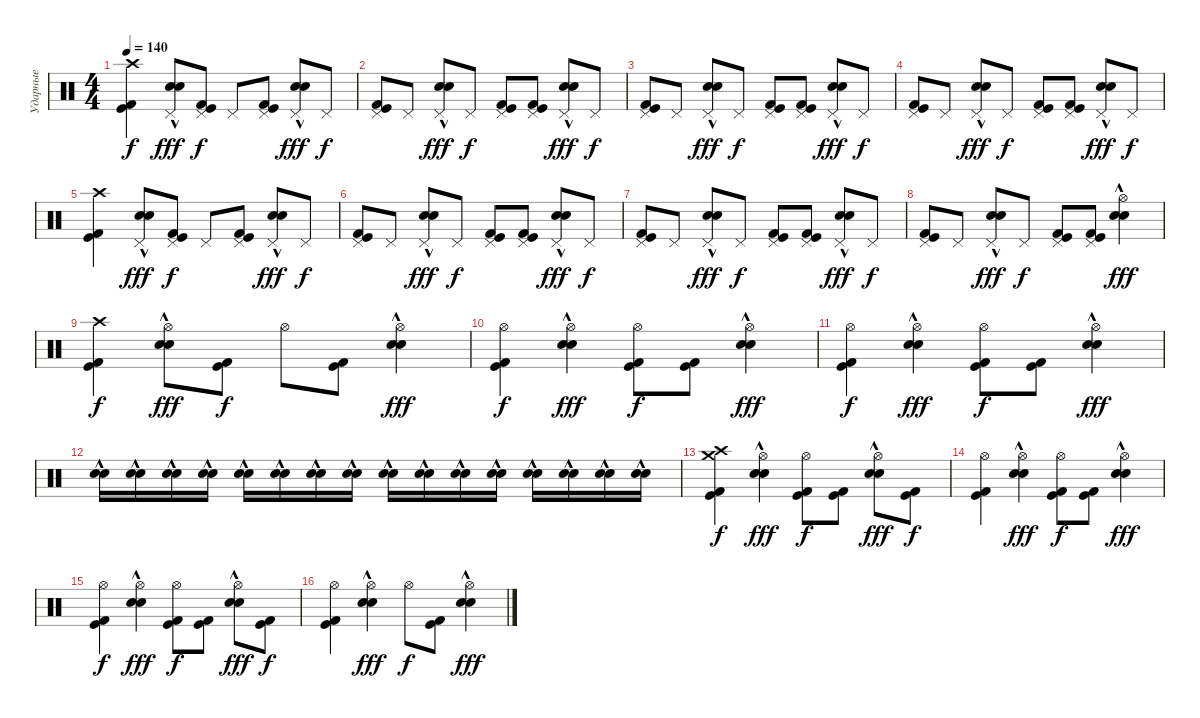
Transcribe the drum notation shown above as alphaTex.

\track ("Ударные" "Ударные") {instrument percussion}
\staff {score}
\articulation defaults
\ts (4 4)
\tempo 140
\clef neutral
\ks c
("Crash high (hit)" "Kick (hit)" "Kick (hit) 2").4{dy f} ("Pedal Hi-Hat (hit)" "Snare (hit) 2"{hac} "Electric Snare (hit)"{hac}).8{dy fff} ("Pedal Hi-Hat (hit)" "Kick (hit)" "Kick (hit) 2").8{dy f} "Pedal Hi-Hat (hit)".8 ("Pedal Hi-Hat (hit)" "Kick (hit)" "Kick (hit) 2").8 ("Pedal Hi-Hat (hit)" "Snare (hit) 2"{hac} "Electric Snare (hit)"{hac}).8{dy fff} "Pedal Hi-Hat (hit)".8{dy f} |
("Pedal Hi-Hat (hit)" "Kick (hit)" "Kick (hit) 2").8 "Pedal Hi-Hat (hit)".8 ("Pedal Hi-Hat (hit)" "Snare (hit) 2"{hac} "Electric Snare (hit)"{hac}).8{dy fff} "Pedal Hi-Hat (hit)".8{dy f} ("Pedal Hi-Hat (hit)" "Kick (hit)" "Kick (hit) 2").8 ("Pedal Hi-Hat (hit)" "Kick (hit)" "Kick (hit) 2").8 ("Pedal Hi-Hat (hit)" "Snare (hit) 2"{hac} "Electric Snare (hit)"{hac}).8{dy fff} "Pedal Hi-Hat (hit)".8{dy f} |
("Pedal Hi-Hat (hit)" "Kick (hit)" "Kick (hit) 2").8 "Pedal Hi-Hat (hit)".8 ("Pedal Hi-Hat (hit)" "Snare (hit) 2"{hac} "Electric Snare (hit)"{hac}).8{dy fff} "Pedal Hi-Hat (hit)".8{dy f} ("Pedal Hi-Hat (hit)" "Kick (hit)" "Kick (hit) 2").8 ("Pedal Hi-Hat (hit)" "Kick (hit)" "Kick (hit) 2").8 ("Pedal Hi-Hat (hit)" "Snare (hit) 2"{hac} "Electric Snare (hit)"{hac}).8{dy fff} "Pedal Hi-Hat (hit)".8{dy f} |
("Pedal Hi-Hat (hit)" "Kick (hit)" "Kick (hit) 2").8 "Pedal Hi-Hat (hit)".8 ("Pedal Hi-Hat (hit)" "Snare (hit) 2"{hac} "Electric Snare (hit)"{hac}).8{dy fff} "Pedal Hi-Hat (hit)".8{dy f} ("Pedal Hi-Hat (hit)" "Kick (hit)" "Kick (hit) 2").8 ("Pedal Hi-Hat (hit)" "Kick (hit)" "Kick (hit) 2").8 ("Pedal Hi-Hat (hit)" "Snare (hit) 2"{hac} "Electric Snare (hit)"{hac}).8{dy fff} "Pedal Hi-Hat (hit)".8{dy f} |
("Crash high (hit)" "Kick (hit)" "Kick (hit) 2").4 ("Pedal Hi-Hat (hit)" "Snare (hit) 2"{hac} "Electric Snare (hit)"{hac}).8{dy fff} ("Pedal Hi-Hat (hit)" "Kick (hit)" "Kick (hit) 2").8{dy f} "Pedal Hi-Hat (hit)".8 ("Pedal Hi-Hat (hit)" "Kick (hit)" "Kick (hit) 2").8 ("Pedal Hi-Hat (hit)" "Snare (hit) 2"{hac} "Electric Snare (hit)"{hac}).8{dy fff} "Pedal Hi-Hat (hit)".8{dy f} |
("Pedal Hi-Hat (hit)" "Kick (hit)" "Kick (hit) 2").8 "Pedal Hi-Hat (hit)".8 ("Pedal Hi-Hat (hit)" "Snare (hit) 2"{hac} "Electric Snare (hit)"{hac}).8{dy fff} "Pedal Hi-Hat (hit)".8{dy f} ("Pedal Hi-Hat (hit)" "Kick (hit)" "Kick (hit) 2").8 ("Pedal Hi-Hat (hit)" "Kick (hit)" "Kick (hit) 2").8 ("Pedal Hi-Hat (hit)" "Snare (hit) 2"{hac} "Electric Snare (hit)"{hac}).8{dy fff} "Pedal Hi-Hat (hit)".8{dy f} |
("Pedal Hi-Hat (hit)" "Kick (hit)" "Kick (hit) 2").8 "Pedal Hi-Hat (hit)".8 ("Pedal Hi-Hat (hit)" "Snare (hit) 2"{hac} "Electric Snare (hit)"{hac}).8{dy fff} "Pedal Hi-Hat (hit)".8{dy f} ("Pedal Hi-Hat (hit)" "Kick (hit)" "Kick (hit) 2").8 ("Pedal Hi-Hat (hit)" "Kick (hit)" "Kick (hit) 2").8 ("Pedal Hi-Hat (hit)" "Snare (hit) 2"{hac} "Electric Snare (hit)"{hac}).8{dy fff} "Pedal Hi-Hat (hit)".8{dy f} |
("Pedal Hi-Hat (hit)" "Kick (hit)" "Kick (hit) 2").8 "Pedal Hi-Hat (hit)".8 ("Pedal Hi-Hat (hit)" "Snare (hit) 2"{hac} "Electric Snare (hit)"{hac}).8{dy fff} "Pedal Hi-Hat (hit)".8{dy f} ("Pedal Hi-Hat (hit)" "Kick (hit)" "Kick (hit) 2").8 ("Pedal Hi-Hat (hit)" "Kick (hit)" "Kick (hit) 2").8 ("Hi-Hat (open)" "Snare (hit) 2"{hac} "Electric Snare (hit)"{hac}).4{dy fff} |
("Crash high (hit)" "Kick (hit)" "Kick (hit) 2").4{dy f} ("Hi-Hat (open)" "Snare (hit) 2"{hac} "Electric Snare (hit)"{hac}).8{dy fff} ("Kick (hit)" "Kick (hit) 2").8{dy f} "Hi-Hat (open)".8 ("Kick (hit)" "Kick (hit) 2").8 ("Hi-Hat (open)" "Snare (hit) 2"{hac} "Electric Snare (hit)"{hac}).4{dy fff} |
("Hi-Hat (open)" "Kick (hit)" "Kick (hit) 2").4{dy f} ("Hi-Hat (open)" "Snare (hit) 2"{hac} "Electric Snare (hit)"{hac}).4{dy fff} ("Hi-Hat (open)" "Kick (hit)" "Kick (hit) 2").8{dy f} ("Kick (hit)" "Kick (hit) 2").8 ("Hi-Hat (open)" "Snare (hit) 2"{hac} "Electric Snare (hit)"{hac}).4{dy fff} |
("Hi-Hat (open)" "Kick (hit)" "Kick (hit) 2").4{dy f} ("Hi-Hat (open)" "Snare (hit) 2"{hac} "Electric Snare (hit)"{hac}).4{dy fff} ("Hi-Hat (open)" "Kick (hit)" "Kick (hit) 2").8{dy f} ("Kick (hit)" "Kick (hit) 2").8 ("Hi-Hat (open)" "Snare (hit) 2"{hac} "Electric Snare (hit)"{hac}).4{dy fff} |
("Snare (hit) 2"{hac} "Electric Snare (hit)"{hac}).16 ("Snare (hit) 2"{hac} "Electric Snare (hit)"{hac}).16 ("Snare (hit) 2"{hac} "Electric Snare (hit)"{hac}).16 ("Snare (hit) 2"{hac} "Electric Snare (hit)"{hac}).16 ("Snare (hit) 2"{hac} "Electric Snare (hit)"{hac}).16 ("Snare (hit) 2"{hac} "Electric Snare (hit)"{hac}).16 ("Snare (hit) 2"{hac} "Electric Snare (hit)"{hac}).16 ("Snare (hit) 2"{hac} "Electric Snare (hit)"{hac}).16 ("Snare (hit) 2"{hac} "Electric Snare (hit)"{hac}).16 ("Snare (hit) 2"{hac} "Electric Snare (hit)"{hac}).16 ("Snare (hit) 2"{hac} "Electric Snare (hit)"{hac}).16 ("Snare (hit) 2"{hac} "Electric Snare (hit)"{hac}).16 ("Snare (hit) 2"{hac} "Electric Snare (hit)"{hac}).16 ("Snare (hit) 2"{hac} "Electric Snare (hit)"{hac}).16 ("Snare (hit) 2"{hac} "Electric Snare (hit)"{hac}).16 ("Snare (hit) 2"{hac} "Electric Snare (hit)"{hac}).16 |
("Crash high (hit)" "Kick (hit)" "Kick (hit) 2" "Crash medium (hit)").4{dy f} ("Hi-Hat (open)" "Snare (hit) 2"{hac} "Electric Snare (hit)"{hac}).4{dy fff} ("Hi-Hat (open)" "Kick (hit)" "Kick (hit) 2").8{dy f} ("Kick (hit)" "Kick (hit) 2").8 ("Hi-Hat (open)" "Snare (hit) 2"{hac} "Electric Snare (hit)"{hac}).8{dy fff} ("Kick (hit)" "Kick (hit) 2").8{dy f} |
("Hi-Hat (open)" "Kick (hit)" "Kick (hit) 2").4 ("Hi-Hat (open)" "Snare (hit) 2"{hac} "Electric Snare (hit)"{hac}).4{dy fff} ("Hi-Hat (open)" "Kick (hit)" "Kick (hit) 2").8{dy f} ("Kick (hit)" "Kick (hit) 2").8 ("Hi-Hat (open)" "Snare (hit) 2"{hac} "Electric Snare (hit)"{hac}).4{dy fff} |
("Hi-Hat (open)" "Kick (hit)" "Kick (hit) 2").4{dy f} ("Hi-Hat (open)" "Snare (hit) 2"{hac} "Electric Snare (hit)"{hac}).4{dy fff} ("Hi-Hat (open)" "Kick (hit)" "Kick (hit) 2").8{dy f} ("Kick (hit)" "Kick (hit) 2").8 ("Hi-Hat (open)" "Snare (hit) 2"{hac} "Electric Snare (hit)"{hac}).8{dy fff} ("Kick (hit)" "Kick (hit) 2").8{dy f} |
("Hi-Hat (open)" "Kick (hit)" "Kick (hit) 2").4 ("Hi-Hat (open)" "Snare (hit) 2"{hac} "Electric Snare (hit)"{hac}).4{dy fff} "Hi-Hat (open)".8{dy f} ("Kick (hit)" "Kick (hit) 2").8 ("Hi-Hat (open)" "Snare (hit) 2"{hac} "Electric Snare (hit)"{hac}).4{dy fff}
